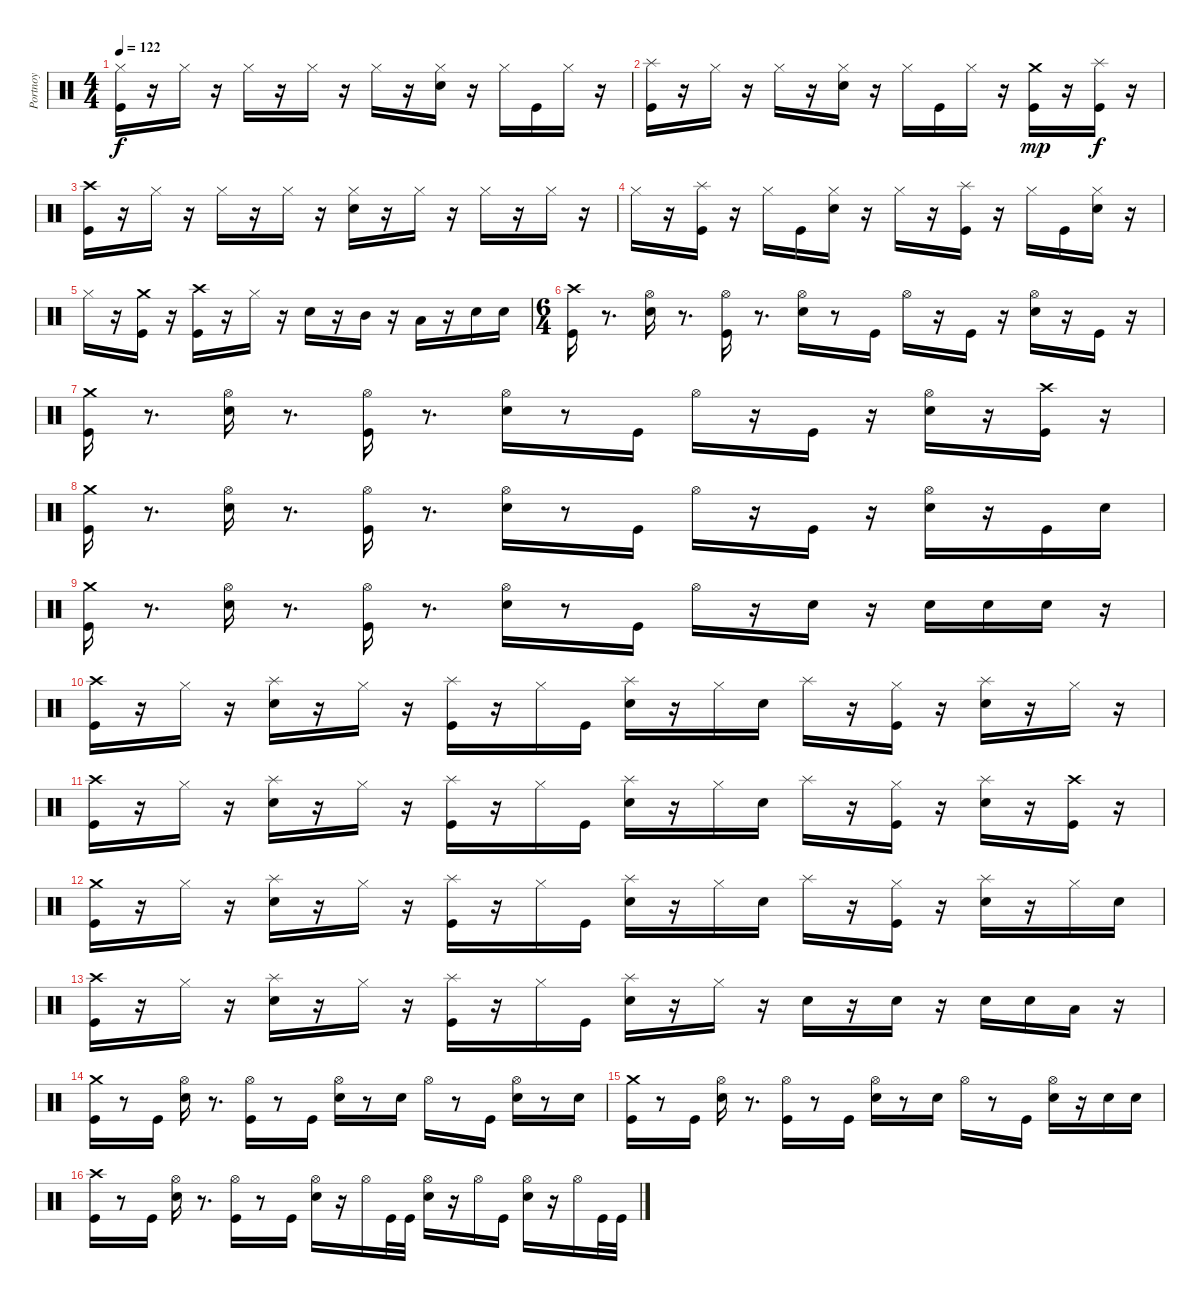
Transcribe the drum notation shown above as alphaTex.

\track ("Portnoy" "Portnoy") {instrument percussion}
\staff {score}
\articulation defaults
\ts (4 4)
\tempo 122
\clef neutral
\ks c
("Kick (hit)" "Hi-Hat (closed)").16{dy f} r.16 "Hi-Hat (closed)".16 r.16 "Hi-Hat (closed)".16 r.16 "Hi-Hat (closed)".16 r.16 "Hi-Hat (closed)".16 r.16 ("Metronome (bell)" "Hi-Hat (closed)").16 r.16 "Hi-Hat (closed)".16 "Kick (hit)".16 "Hi-Hat (closed)".16 r.16 |
("Kick (hit)" "Splash (hit)").16 r.16 "Hi-Hat (closed)".16 r.16 "Hi-Hat (closed)".16 r.16 ("Metronome (bell)" "Hi-Hat (closed)").16 r.16 "Hi-Hat (closed)".16 "Kick (hit)".16 "Hi-Hat (closed)".16 r.16 ("Kick (hit)" "Crash medium (hit)").16{dy mp} r.16 ("Kick (hit)" "Splash (hit)").16{dy f} r.16 |
("Crash high (hit)" "Kick (hit)").16 r.16 "Hi-Hat (closed)".16 r.16 "Hi-Hat (closed)".16 r.16 "Hi-Hat (closed)".16 r.16 ("Metronome (bell)" "Hi-Hat (closed)").16 r.16 "Hi-Hat (closed)".16 r.16 "Hi-Hat (closed)".16 r.16 "Hi-Hat (closed)".16 r.16 |
"Hi-Hat (closed)".16 r.16 ("Splash (hit)" "Kick (hit)").16 r.16 "Hi-Hat (closed)".16 "Kick (hit)".16 ("Metronome (bell)" "Hi-Hat (closed)").16 r.16 "Hi-Hat (closed)".16 r.16 ("Kick (hit)" "Splash (hit)").16 r.16 "Hi-Hat (closed)".16 "Kick (hit)".16 ("Metronome (bell)" "Hi-Hat (closed)").16 r.16 |
"Hi-Hat (closed)".16 r.16 ("Kick (hit)" "Crash medium (hit)").16 r.16 ("Crash high (hit)" "Kick (hit)").16 r.16 "Hi-Hat (closed)".16 r.16 "Metronome (bell)".16 r.16 "Mid Tom (hit)".16 r.16 "Low Tom (hit)".16 r.16 "Metronome (bell)".16 "Metronome (bell)".16 |
\ts (6 4)
("Crash high (hit)" "Kick (hit)").16 r.8{d} ("Metronome (bell)" "Hi-Hat (open)").16 r.8{d} ("Kick (hit)" "Hi-Hat (open)").16 r.8{d} ("Metronome (bell)" "Hi-Hat (open)").16 r.8 "Kick (hit)".16 "Hi-Hat (open)".16 r.16 "Kick (hit)".16 r.16 ("Metronome (bell)" "Hi-Hat (open)").16 r.16 "Kick (hit)".16 r.16 |
("Kick (hit)" "Crash medium (hit)").16 r.8{d} ("Metronome (bell)" "Hi-Hat (open)").16 r.8{d} ("Kick (hit)" "Hi-Hat (open)").16 r.8{d} ("Metronome (bell)" "Hi-Hat (open)").16 r.8 "Kick (hit)".16 "Hi-Hat (open)".16 r.16 "Kick (hit)".16 r.16 ("Metronome (bell)" "Hi-Hat (open)").16 r.16 ("Crash high (hit)" "Kick (hit)").16 r.16 |
("Crash medium (hit)" "Kick (hit)").16 r.8{d} ("Metronome (bell)" "Hi-Hat (open)").16 r.8{d} ("Kick (hit)" "Hi-Hat (open)").16 r.8{d} ("Metronome (bell)" "Hi-Hat (open)").16 r.8 "Kick (hit)".16 "Hi-Hat (open)".16 r.16 "Kick (hit)".16 r.16 ("Metronome (bell)" "Hi-Hat (open)").16 r.16 "Kick (hit)".16 "Metronome (bell)".16 |
("Kick (hit)" "Crash medium (hit)").16 r.8{d} ("Metronome (bell)" "Hi-Hat (open)").16 r.8{d} ("Kick (hit)" "Hi-Hat (open)").16 r.8{d} ("Metronome (bell)" "Hi-Hat (open)").16 r.8 "Kick (hit)".16 "Hi-Hat (open)".16 r.16 "Metronome (bell)".16 r.16 "Metronome (bell)".16 "Metronome (bell)".16 "Metronome (bell)".16 r.16 |
("Crash high (hit)" "Kick (hit)").16 r.16 "Hi-Hat (closed)".16 r.16 ("Metronome (bell)" "Splash (hit)").16 r.16 "Hi-Hat (closed)".16 r.16 ("Kick (hit)" "Splash (hit)").16 r.16 "Hi-Hat (closed)".16 "Kick (hit)".16 ("Metronome (bell)" "Splash (hit)").16 r.16 "Hi-Hat (closed)".16 "Metronome (bell)".16 "Splash (hit)".16 r.16 ("Kick (hit)" "Hi-Hat (closed)").16 r.16 ("Metronome (bell)" "Splash (hit)").16 r.16 "Hi-Hat (closed)".16 r.16 |
("Crash high (hit)" "Kick (hit)").16 r.16 "Hi-Hat (closed)".16 r.16 ("Metronome (bell)" "Splash (hit)").16 r.16 "Hi-Hat (closed)".16 r.16 ("Kick (hit)" "Splash (hit)").16 r.16 "Hi-Hat (closed)".16 "Kick (hit)".16 ("Metronome (bell)" "Splash (hit)").16 r.16 "Hi-Hat (closed)".16 "Metronome (bell)".16 "Splash (hit)".16 r.16 ("Kick (hit)" "Hi-Hat (closed)").16 r.16 ("Metronome (bell)" "Splash (hit)").16 r.16 ("Kick (hit)" "Crash high (hit)").16 r.16 |
("Crash medium (hit)" "Kick (hit)").16 r.16 "Hi-Hat (closed)".16 r.16 ("Metronome (bell)" "Splash (hit)").16 r.16 "Hi-Hat (closed)".16 r.16 ("Kick (hit)" "Splash (hit)").16 r.16 "Hi-Hat (closed)".16 "Kick (hit)".16 ("Metronome (bell)" "Splash (hit)").16 r.16 "Hi-Hat (closed)".16 "Metronome (bell)".16 "Splash (hit)".16 r.16 ("Kick (hit)" "Hi-Hat (closed)").16 r.16 ("Metronome (bell)" "Splash (hit)").16 r.16 "Hi-Hat (closed)".16 "Metronome (bell)".16 |
("Crash high (hit)" "Kick (hit)").16 r.16 "Hi-Hat (closed)".16 r.16 ("Metronome (bell)" "Splash (hit)").16 r.16 "Hi-Hat (closed)".16 r.16 ("Kick (hit)" "Splash (hit)").16 r.16 "Hi-Hat (closed)".16 "Kick (hit)".16 ("Metronome (bell)" "Splash (hit)").16 r.16 "Hi-Hat (closed)".16 r.16 "Metronome (bell)".16 r.16 "Metronome (bell)".16 r.16 "Metronome (bell)".16 "Metronome (bell)".16 "Low Floor Tom (hit)".16 r.16 |
("Crash medium (hit)" "Kick (hit)").16 r.8 "Kick (hit)".16 ("Metronome (bell)" "Hi-Hat (open)").16 r.8{d} ("Kick (hit)" "Hi-Hat (open)").16 r.8 "Kick (hit)".16 ("Metronome (bell)" "Hi-Hat (open)").16 r.8 "Metronome (bell)".16 "Hi-Hat (open)".16 r.8 "Kick (hit)".16 ("Metronome (bell)" "Hi-Hat (open)").16 r.8 "Metronome (bell)".16 |
("Crash medium (hit)" "Kick (hit)").16 r.8 "Kick (hit)".16 ("Metronome (bell)" "Hi-Hat (open)").16 r.8{d} ("Kick (hit)" "Hi-Hat (open)").16 r.8 "Kick (hit)".16 ("Metronome (bell)" "Hi-Hat (open)").16 r.8 "Metronome (bell)".16 "Hi-Hat (open)".16 r.8 "Kick (hit)".16 ("Metronome (bell)" "Hi-Hat (open)").16 r.16 "Metronome (bell)".16 "Metronome (bell)".16 |
("Crash high (hit)" "Kick (hit)").16 r.8 "Kick (hit)".16 ("Metronome (bell)" "Hi-Hat (open)").16 r.8{d} ("Kick (hit)" "Hi-Hat (open)").16 r.8 "Kick (hit)".16 ("Metronome (bell)" "Hi-Hat (open)").16 r.16 "Hi-Hat (open)".16 "Kick (hit)".32 "Kick (hit)".32 ("Hi-Hat (open)" "Metronome (bell)").16 r.16 "Hi-Hat (open)".16 "Kick (hit)".16 ("Hi-Hat (open)" "Metronome (bell)").16 r.16 "Hi-Hat (open)".16 "Kick (hit)".32 "Kick (hit)".32
